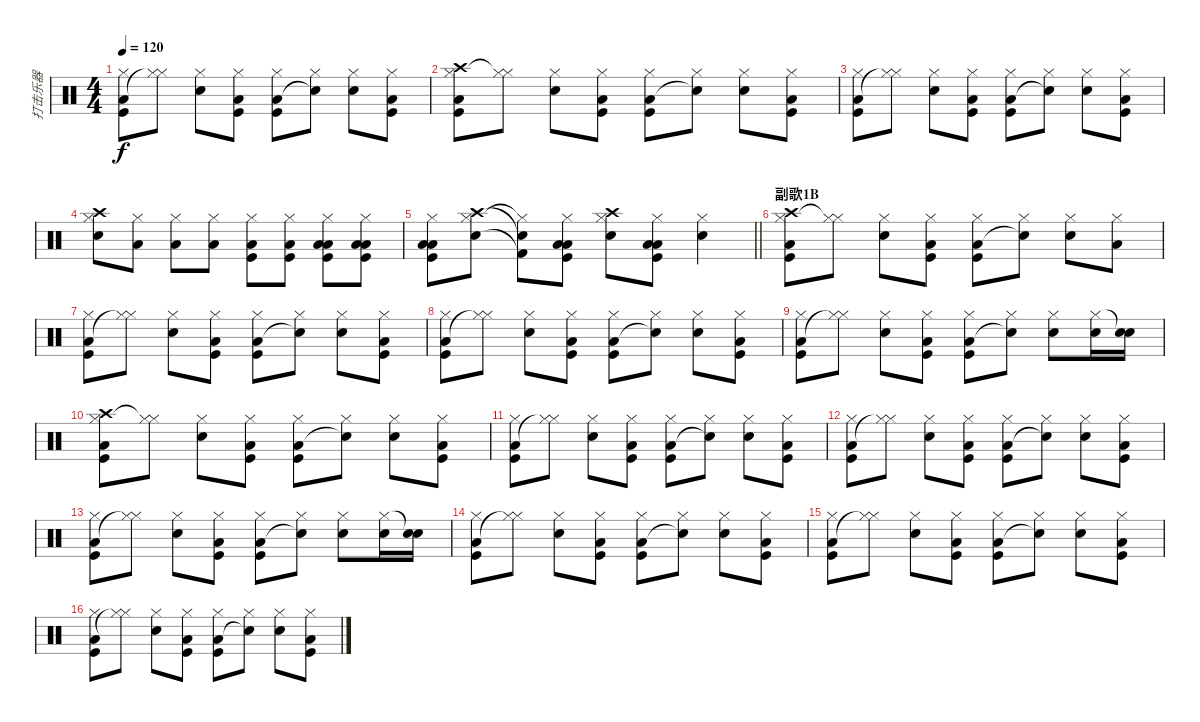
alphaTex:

\track ("打击乐器" "打击乐器") {instrument percussion}
\staff {score}
\articulation defaults
\ts (4 4)
\tempo 120
\clef neutral
\ks c
("Hi-Hat (closed)" "Low Floor Tom (hit)" "Kick (hit)").8{dy f} ("Hi-Hat (closed)" "Hi-Hat (closed)"{t}).8 ("Hi-Hat (closed)" "Electric Snare (hit)").8 ("Hi-Hat (closed)" "Low Floor Tom (hit)" "Kick (hit)").8 ("Hi-Hat (closed)" "Low Floor Tom (hit)" "Kick (hit)").8 ("Hi-Hat (closed)" "Snare (hit)"{t}).8 ("Hi-Hat (closed)" "Electric Snare (hit)").8 ("Hi-Hat (closed)" "Low Floor Tom (hit)" "Kick (hit)").8 |
("Crash high (hit)" "Hi-Hat (closed)" "Low Floor Tom (hit)" "Kick (hit)").8 ("Hi-Hat (closed)" "Hi-Hat (closed)"{t}).8 ("Hi-Hat (closed)" "Electric Snare (hit)").8 ("Hi-Hat (closed)" "Low Floor Tom (hit)" "Kick (hit)").8 ("Hi-Hat (closed)" "Low Floor Tom (hit)" "Kick (hit)").8 ("Hi-Hat (closed)" "Snare (hit)"{t}).8 ("Hi-Hat (closed)" "Electric Snare (hit)").8 ("Hi-Hat (closed)" "Low Floor Tom (hit)" "Kick (hit)").8 |
("Hi-Hat (closed)" "Low Floor Tom (hit)" "Kick (hit)").8 ("Hi-Hat (closed)" "Hi-Hat (closed)"{t}).8 ("Hi-Hat (closed)" "Electric Snare (hit)").8 ("Hi-Hat (closed)" "Low Floor Tom (hit)" "Kick (hit)").8 ("Hi-Hat (closed)" "Low Floor Tom (hit)" "Kick (hit)").8 ("Hi-Hat (closed)" "Snare (hit)"{t}).8 ("Hi-Hat (closed)" "Electric Snare (hit)").8 ("Hi-Hat (closed)" "Low Floor Tom (hit)" "Kick (hit)").8 |
("Crash high (hit)" "Hi-Hat (closed)" "Electric Snare (hit)").8 ("Hi-Hat (closed)" "Low Floor Tom (hit)").8 ("Hi-Hat (closed)" "Low Floor Tom (hit)").8 ("Hi-Hat (closed)" "Low Floor Tom (hit)").8 ("Hi-Hat (closed)" "Kick (hit)" "Low Floor Tom (hit)").8 ("Hi-Hat (closed)" "Kick (hit)" "Low Floor Tom (hit)").8 ("Hi-Hat (closed)" "Kick (hit)" "Low Floor Tom (hit)" "Low Tom (hit)").8 ("Hi-Hat (closed)" "Kick (hit)" "Low Floor Tom (hit)" "Low Tom (hit)").8 |
\barLineRight lightlight
("Hi-Hat (closed)" "Kick (hit)" "Low Floor Tom (hit)" "Low Tom (hit)").8 ("Crash high (hit)" "Hi-Hat (closed)" "Electric Snare (hit)").8 ("Snare (hit)"{t} "Hi-Hat (closed)"{t} "Kick (hit) 2"{t}).8 ("Hi-Hat (closed)" "Kick (hit)" "Low Floor Tom (hit)" "Low Tom (hit)").8 ("Crash high (hit)" "Hi-Hat (closed)" "Electric Snare (hit)").8 ("Hi-Hat (closed)" "Kick (hit)" "Low Floor Tom (hit)" "Low Tom (hit)").8 ("Hi-Hat (closed)" "Electric Snare (hit)").4 |
\section ("" "副歌1B")
("Crash high (hit)" "Hi-Hat (closed)" "Low Floor Tom (hit)" "Kick (hit)").8 ("Hi-Hat (closed)" "Hi-Hat (closed)"{t}).8 ("Hi-Hat (closed)" "Electric Snare (hit)").8 ("Hi-Hat (closed)" "Low Floor Tom (hit)" "Kick (hit)").8 ("Hi-Hat (closed)" "Low Floor Tom (hit)" "Kick (hit)").8 ("Hi-Hat (closed)" "Snare (hit)"{t}).8 ("Hi-Hat (closed)" "Electric Snare (hit)").8 ("Hi-Hat (closed)" "Low Floor Tom (hit)").8 |
("Hi-Hat (closed)" "Low Floor Tom (hit)" "Kick (hit)").8 ("Hi-Hat (closed)" "Hi-Hat (closed)"{t}).8 ("Hi-Hat (closed)" "Electric Snare (hit)").8 ("Hi-Hat (closed)" "Low Floor Tom (hit)" "Kick (hit)").8 ("Hi-Hat (closed)" "Low Floor Tom (hit)" "Kick (hit)").8 ("Hi-Hat (closed)" "Snare (hit)"{t}).8 ("Hi-Hat (closed)" "Electric Snare (hit)").8 ("Hi-Hat (closed)" "Low Floor Tom (hit)" "Kick (hit)").8 |
("Hi-Hat (closed)" "Low Floor Tom (hit)" "Kick (hit)").8 ("Hi-Hat (closed)" "Hi-Hat (closed)"{t}).8 ("Hi-Hat (closed)" "Electric Snare (hit)").8 ("Hi-Hat (closed)" "Low Floor Tom (hit)" "Kick (hit)").8 ("Hi-Hat (closed)" "Low Floor Tom (hit)" "Kick (hit)").8 ("Hi-Hat (closed)" "Snare (hit)"{t}).8 ("Hi-Hat (closed)" "Electric Snare (hit)").8 ("Hi-Hat (closed)" "Low Floor Tom (hit)" "Kick (hit)").8 |
("Hi-Hat (closed)" "Low Floor Tom (hit)" "Kick (hit)").8 ("Hi-Hat (closed)" "Hi-Hat (closed)"{t}).8 ("Hi-Hat (closed)" "Electric Snare (hit)").8 ("Hi-Hat (closed)" "Low Floor Tom (hit)" "Kick (hit)").8 ("Hi-Hat (closed)" "Low Floor Tom (hit)" "Kick (hit)").8 ("Hi-Hat (closed)" "Snare (hit)"{t}).8 ("Hi-Hat (closed)" "Electric Snare (hit)").8 ("Hi-Hat (closed)" "Electric Snare (hit)").16 ("Snare (hit)"{t} "Electric Snare (hit)").16 |
("Crash high (hit)" "Hi-Hat (closed)" "Low Floor Tom (hit)" "Kick (hit)").8 ("Hi-Hat (closed)" "Hi-Hat (closed)"{t}).8 ("Hi-Hat (closed)" "Electric Snare (hit)").8 ("Hi-Hat (closed)" "Low Floor Tom (hit)" "Kick (hit)").8 ("Hi-Hat (closed)" "Low Floor Tom (hit)" "Kick (hit)").8 ("Hi-Hat (closed)" "Snare (hit)"{t}).8 ("Hi-Hat (closed)" "Electric Snare (hit)").8 ("Hi-Hat (closed)" "Low Floor Tom (hit)" "Kick (hit)").8 |
("Hi-Hat (closed)" "Low Floor Tom (hit)" "Kick (hit)").8 ("Hi-Hat (closed)" "Hi-Hat (closed)"{t}).8 ("Hi-Hat (closed)" "Electric Snare (hit)").8 ("Hi-Hat (closed)" "Low Floor Tom (hit)" "Kick (hit)").8 ("Hi-Hat (closed)" "Low Floor Tom (hit)" "Kick (hit)").8 ("Hi-Hat (closed)" "Snare (hit)"{t}).8 ("Hi-Hat (closed)" "Electric Snare (hit)").8 ("Hi-Hat (closed)" "Low Floor Tom (hit)" "Kick (hit)").8 |
("Hi-Hat (closed)" "Low Floor Tom (hit)" "Kick (hit)").8 ("Hi-Hat (closed)" "Hi-Hat (closed)"{t}).8 ("Hi-Hat (closed)" "Electric Snare (hit)").8 ("Hi-Hat (closed)" "Low Floor Tom (hit)" "Kick (hit)").8 ("Hi-Hat (closed)" "Low Floor Tom (hit)" "Kick (hit)").8 ("Hi-Hat (closed)" "Snare (hit)"{t}).8 ("Hi-Hat (closed)" "Electric Snare (hit)").8 ("Hi-Hat (closed)" "Low Floor Tom (hit)" "Kick (hit)").8 |
("Hi-Hat (closed)" "Low Floor Tom (hit)" "Kick (hit)").8 ("Hi-Hat (closed)" "Hi-Hat (closed)"{t}).8 ("Hi-Hat (closed)" "Electric Snare (hit)").8 ("Hi-Hat (closed)" "Low Floor Tom (hit)" "Kick (hit)").8 ("Hi-Hat (closed)" "Low Floor Tom (hit)" "Kick (hit)").8 ("Hi-Hat (closed)" "Snare (hit)"{t}).8 ("Hi-Hat (closed)" "Electric Snare (hit)").8 ("Hi-Hat (closed)" "Electric Snare (hit)").16 ("Snare (hit)"{t} "Electric Snare (hit)").16 |
("Hi-Hat (closed)" "Low Floor Tom (hit)" "Kick (hit)").8 ("Hi-Hat (closed)" "Hi-Hat (closed)"{t}).8 ("Hi-Hat (closed)" "Electric Snare (hit)").8 ("Hi-Hat (closed)" "Low Floor Tom (hit)" "Kick (hit)").8 ("Hi-Hat (closed)" "Low Floor Tom (hit)" "Kick (hit)").8 ("Hi-Hat (closed)" "Snare (hit)"{t}).8 ("Hi-Hat (closed)" "Electric Snare (hit)").8 ("Hi-Hat (closed)" "Low Floor Tom (hit)" "Kick (hit)").8 |
("Hi-Hat (closed)" "Low Floor Tom (hit)" "Kick (hit)").8 ("Hi-Hat (closed)" "Hi-Hat (closed)"{t}).8 ("Hi-Hat (closed)" "Electric Snare (hit)").8 ("Hi-Hat (closed)" "Low Floor Tom (hit)" "Kick (hit)").8 ("Hi-Hat (closed)" "Low Floor Tom (hit)" "Kick (hit)").8 ("Hi-Hat (closed)" "Snare (hit)"{t}).8 ("Hi-Hat (closed)" "Electric Snare (hit)").8 ("Hi-Hat (closed)" "Low Floor Tom (hit)" "Kick (hit)").8 |
("Hi-Hat (closed)" "Low Floor Tom (hit)" "Kick (hit)").8 ("Hi-Hat (closed)" "Hi-Hat (closed)"{t}).8 ("Hi-Hat (closed)" "Electric Snare (hit)").8 ("Hi-Hat (closed)" "Low Floor Tom (hit)" "Kick (hit)").8 ("Hi-Hat (closed)" "Low Floor Tom (hit)" "Kick (hit)").8 ("Hi-Hat (closed)" "Snare (hit)"{t}).8 ("Hi-Hat (closed)" "Electric Snare (hit)").8 ("Hi-Hat (closed)" "Low Floor Tom (hit)" "Kick (hit)").8
